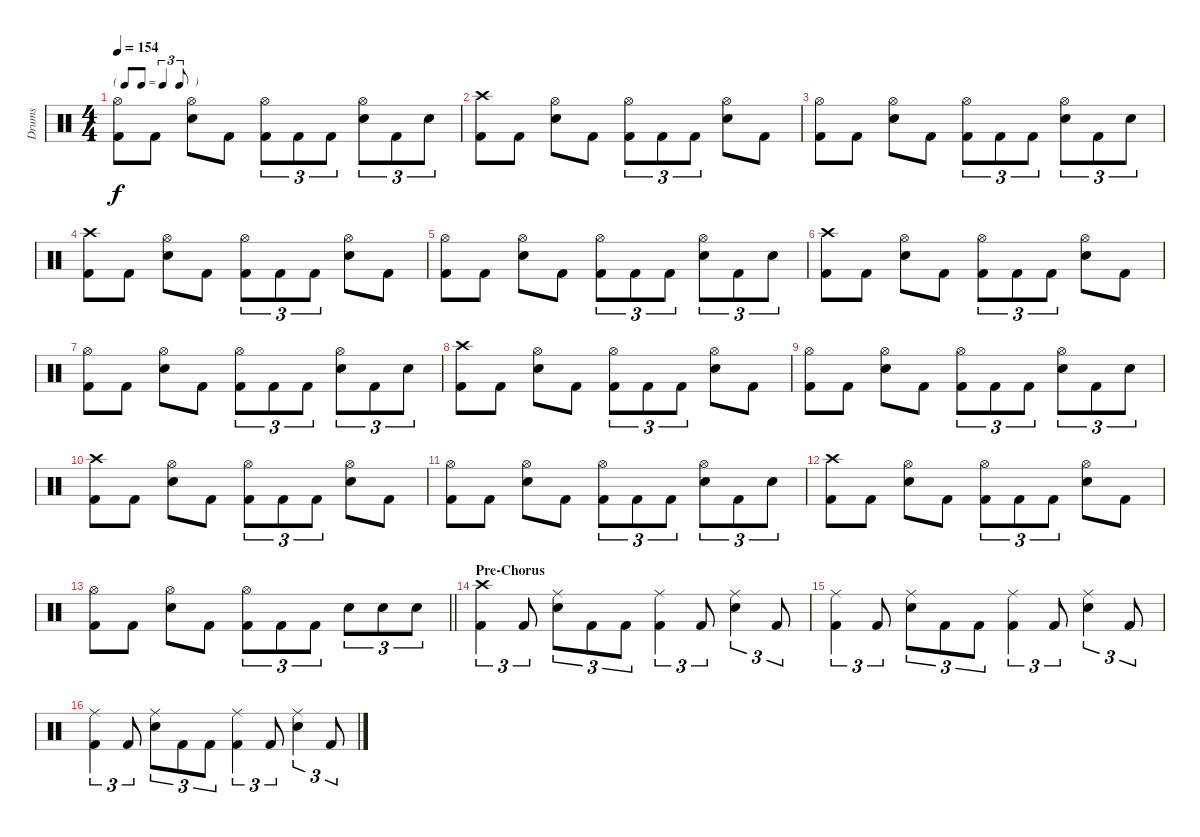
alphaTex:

\track ("Drums" "Drums") {instrument percussion}
\staff {score}
\articulation defaults
\ts (4 4)
\tf triplet8th
\tempo 154
\clef neutral
\ks c
("Hi-Hat (open)" "Kick (hit) 2").8{dy f} "Kick (hit) 2".8 ("Hi-Hat (open)" "Snare (hit) 2").8 "Kick (hit) 2".8 ("Hi-Hat (open)" "Kick (hit) 2").8{tu (3 2)} "Kick (hit) 2".8{tu (3 2)} "Kick (hit) 2".8{tu (3 2)} ("Hi-Hat (open)" "Snare (hit) 2").8{tu (3 2)} "Kick (hit) 2".8{tu (3 2)} "Snare (hit) 2".8{tu (3 2)} |
("Crash high (hit)" "Kick (hit) 2").8 "Kick (hit) 2".8 ("Hi-Hat (open)" "Snare (hit) 2").8 "Kick (hit) 2".8 ("Hi-Hat (open)" "Kick (hit) 2").8{tu (3 2)} "Kick (hit) 2".8{tu (3 2)} "Kick (hit) 2".8{tu (3 2)} ("Hi-Hat (open)" "Snare (hit) 2").8 "Kick (hit) 2".8 |
("Hi-Hat (open)" "Kick (hit) 2").8 "Kick (hit) 2".8 ("Hi-Hat (open)" "Snare (hit) 2").8 "Kick (hit) 2".8 ("Hi-Hat (open)" "Kick (hit) 2").8{tu (3 2)} "Kick (hit) 2".8{tu (3 2)} "Kick (hit) 2".8{tu (3 2)} ("Hi-Hat (open)" "Snare (hit) 2").8{tu (3 2)} "Kick (hit) 2".8{tu (3 2)} "Snare (hit) 2".8{tu (3 2)} |
("Crash high (hit)" "Kick (hit) 2").8 "Kick (hit) 2".8 ("Hi-Hat (open)" "Snare (hit) 2").8 "Kick (hit) 2".8 ("Hi-Hat (open)" "Kick (hit) 2").8{tu (3 2)} "Kick (hit) 2".8{tu (3 2)} "Kick (hit) 2".8{tu (3 2)} ("Hi-Hat (open)" "Snare (hit) 2").8 "Kick (hit) 2".8 |
("Hi-Hat (open)" "Kick (hit) 2").8 "Kick (hit) 2".8 ("Hi-Hat (open)" "Snare (hit) 2").8 "Kick (hit) 2".8 ("Hi-Hat (open)" "Kick (hit) 2").8{tu (3 2)} "Kick (hit) 2".8{tu (3 2)} "Kick (hit) 2".8{tu (3 2)} ("Hi-Hat (open)" "Snare (hit) 2").8{tu (3 2)} "Kick (hit) 2".8{tu (3 2)} "Snare (hit) 2".8{tu (3 2)} |
("Crash high (hit)" "Kick (hit) 2").8 "Kick (hit) 2".8 ("Hi-Hat (open)" "Snare (hit) 2").8 "Kick (hit) 2".8 ("Hi-Hat (open)" "Kick (hit) 2").8{tu (3 2)} "Kick (hit) 2".8{tu (3 2)} "Kick (hit) 2".8{tu (3 2)} ("Hi-Hat (open)" "Snare (hit) 2").8 "Kick (hit) 2".8 |
("Hi-Hat (open)" "Kick (hit) 2").8 "Kick (hit) 2".8 ("Hi-Hat (open)" "Snare (hit) 2").8 "Kick (hit) 2".8 ("Hi-Hat (open)" "Kick (hit) 2").8{tu (3 2)} "Kick (hit) 2".8{tu (3 2)} "Kick (hit) 2".8{tu (3 2)} ("Hi-Hat (open)" "Snare (hit) 2").8{tu (3 2)} "Kick (hit) 2".8{tu (3 2)} "Snare (hit) 2".8{tu (3 2)} |
("Crash high (hit)" "Kick (hit) 2").8 "Kick (hit) 2".8 ("Hi-Hat (open)" "Snare (hit) 2").8 "Kick (hit) 2".8 ("Hi-Hat (open)" "Kick (hit) 2").8{tu (3 2)} "Kick (hit) 2".8{tu (3 2)} "Kick (hit) 2".8{tu (3 2)} ("Hi-Hat (open)" "Snare (hit) 2").8 "Kick (hit) 2".8 |
("Hi-Hat (open)" "Kick (hit) 2").8 "Kick (hit) 2".8 ("Hi-Hat (open)" "Snare (hit) 2").8 "Kick (hit) 2".8 ("Hi-Hat (open)" "Kick (hit) 2").8{tu (3 2)} "Kick (hit) 2".8{tu (3 2)} "Kick (hit) 2".8{tu (3 2)} ("Hi-Hat (open)" "Snare (hit) 2").8{tu (3 2)} "Kick (hit) 2".8{tu (3 2)} "Snare (hit) 2".8{tu (3 2)} |
("Crash high (hit)" "Kick (hit) 2").8 "Kick (hit) 2".8 ("Hi-Hat (open)" "Snare (hit) 2").8 "Kick (hit) 2".8 ("Hi-Hat (open)" "Kick (hit) 2").8{tu (3 2)} "Kick (hit) 2".8{tu (3 2)} "Kick (hit) 2".8{tu (3 2)} ("Hi-Hat (open)" "Snare (hit) 2").8 "Kick (hit) 2".8 |
("Hi-Hat (open)" "Kick (hit) 2").8 "Kick (hit) 2".8 ("Hi-Hat (open)" "Snare (hit) 2").8 "Kick (hit) 2".8 ("Hi-Hat (open)" "Kick (hit) 2").8{tu (3 2)} "Kick (hit) 2".8{tu (3 2)} "Kick (hit) 2".8{tu (3 2)} ("Hi-Hat (open)" "Snare (hit) 2").8{tu (3 2)} "Kick (hit) 2".8{tu (3 2)} "Snare (hit) 2".8{tu (3 2)} |
("Crash high (hit)" "Kick (hit) 2").8 "Kick (hit) 2".8 ("Hi-Hat (open)" "Snare (hit) 2").8 "Kick (hit) 2".8 ("Hi-Hat (open)" "Kick (hit) 2").8{tu (3 2)} "Kick (hit) 2".8{tu (3 2)} "Kick (hit) 2".8{tu (3 2)} ("Hi-Hat (open)" "Snare (hit) 2").8 "Kick (hit) 2".8 |
\barLineRight lightlight
("Hi-Hat (open)" "Kick (hit) 2").8 "Kick (hit) 2".8 ("Hi-Hat (open)" "Snare (hit) 2").8 "Kick (hit) 2".8 ("Hi-Hat (open)" "Kick (hit) 2").8{tu (3 2)} "Kick (hit) 2".8{tu (3 2)} "Kick (hit) 2".8{tu (3 2)} "Snare (hit) 2".8{tu (3 2)} "Snare (hit) 2".8{tu (3 2)} "Snare (hit) 2".8{tu (3 2)} |
\section ("" "Pre-Chorus")
("Crash high (hit)" "Kick (hit) 2").4{tu (3 2)} "Kick (hit) 2".8{tu (3 2)} ("Ride (middle)" "Snare (hit) 2").8{tu (3 2)} "Kick (hit) 2".8{tu (3 2)} "Kick (hit) 2".8{tu (3 2)} ("Ride (middle)" "Kick (hit) 2").4{tu (3 2)} "Kick (hit) 2".8{tu (3 2)} ("Ride (middle)" "Snare (hit) 2").4{tu (3 2)} "Kick (hit) 2".8{tu (3 2)} |
("Ride (middle)" "Kick (hit) 2").4{tu (3 2)} "Kick (hit) 2".8{tu (3 2)} ("Ride (middle)" "Snare (hit) 2").8{tu (3 2)} "Kick (hit) 2".8{tu (3 2)} "Kick (hit) 2".8{tu (3 2)} ("Ride (middle)" "Kick (hit) 2").4{tu (3 2)} "Kick (hit) 2".8{tu (3 2)} ("Ride (middle)" "Snare (hit) 2").4{tu (3 2)} "Kick (hit) 2".8{tu (3 2)} |
("Ride (middle)" "Kick (hit) 2").4{tu (3 2)} "Kick (hit) 2".8{tu (3 2)} ("Ride (middle)" "Snare (hit) 2").8{tu (3 2)} "Kick (hit) 2".8{tu (3 2)} "Kick (hit) 2".8{tu (3 2)} ("Ride (middle)" "Kick (hit) 2").4{tu (3 2)} "Kick (hit) 2".8{tu (3 2)} ("Ride (middle)" "Snare (hit) 2").4{tu (3 2)} "Kick (hit) 2".8{tu (3 2)}
